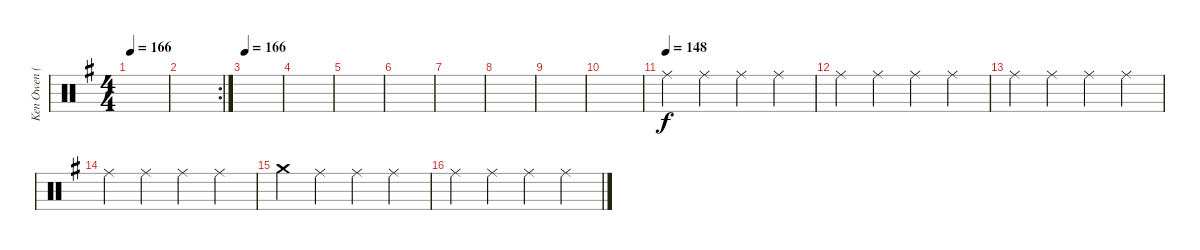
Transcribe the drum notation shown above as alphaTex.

\track ("Ken Owen (Extra Cymbals)" "Ken Owen (") {instrument percussion}
\staff {score}
\articulation defaults
\ts (4 4)
\tempo 166
\clef neutral
\ks g
|
\rc 2
|
\tempo 166
|
|
|
|
|
|
|
|
\tempo (148)
"Ride (middle)".4 "Ride (middle)".4 "Ride (middle)".4 "Ride (middle)".4 |
"Ride (middle)".4 "Ride (middle)".4 "Ride (middle)".4 "Ride (middle)".4 |
"Ride (middle)".4 "Ride (middle)".4 "Ride (middle)".4 "Ride (middle)".4 |
"Ride (middle)".4 "Ride (middle)".4 "Ride (middle)".4 "Ride (middle)".4 |
"Crash medium (hit)".4 "Ride (middle)".4 "Ride (middle)".4 "Ride (middle)".4 |
"Ride (middle)".4 "Ride (middle)".4 "Ride (middle)".4 "Ride (middle)".4
